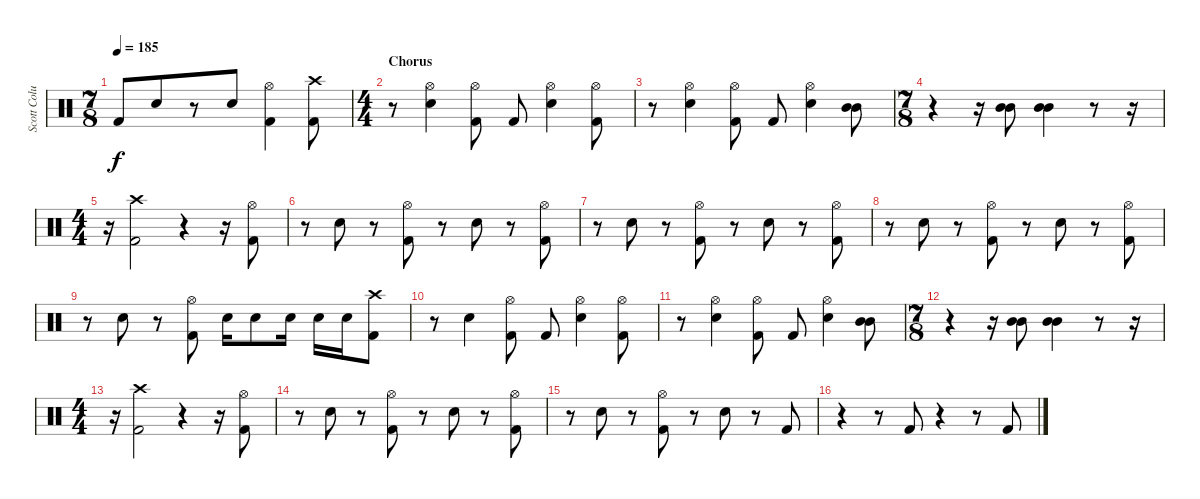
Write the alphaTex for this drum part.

\track ("Scott Columbus" "Scott Colu") {instrument percussion}
\staff {score}
\articulation defaults
\ts (7 8)
\tempo 185
\clef neutral
\ks c "Kick (hit) 2".8{dy f} "Snare (hit) 2".8
r.8 "Snare (hit) 2".8 ("Hi-Hat (open)" "Kick (hit) 2").4 ("Crash high (hit)" "Kick (hit) 2").8 |
\ts (4 4)
\section ("" "Chorus")
r.8 ("Hi-Hat (open)" "Snare (hit) 2").4 ("Hi-Hat (open)" "Kick (hit) 2").8 "Kick (hit) 2".8 ("Hi-Hat (open)" "Snare (hit) 2").4 ("Hi-Hat (open)" "Kick (hit) 2").8 |
r.8 ("Hi-Hat (open)" "Snare (hit) 2").4 ("Hi-Hat (open)" "Kick (hit) 2").8 "Kick (hit) 2".8 ("Hi-Hat (open)" "Snare (hit) 2").4 ("Mid Tom (hit)" "Mid Tom (hit)").8 |
\ts (7 8)
r.4 r.16 ("Mid Tom (hit)" "Mid Tom (hit)").8 ("Mid Tom (hit)" "Mid Tom (hit)").4 r.8 r.16 |
\ts (4 4)
r.16 ("Crash high (hit)" "Kick (hit) 2").2 r.4 r.16 ("Hi-Hat (open)" "Kick (hit) 2").8 |
r.8 "Snare (hit) 2".8 r.8 ("Hi-Hat (open)" "Kick (hit) 2").8 r.8 "Snare (hit) 2".8 r.8 ("Hi-Hat (open)" "Kick (hit) 2").8 |
r.8 "Snare (hit) 2".8 r.8 ("Hi-Hat (open)" "Kick (hit) 2").8 r.8 "Snare (hit) 2".8 r.8 ("Hi-Hat (open)" "Kick (hit) 2").8 |
r.8 "Snare (hit) 2".8 r.8 ("Hi-Hat (open)" "Kick (hit) 2").8 r.8 "Snare (hit) 2".8 r.8 ("Hi-Hat (open)" "Kick (hit) 2").8 |
r.8 "Snare (hit) 2".8 r.8 ("Hi-Hat (open)" "Kick (hit) 2").8 "Snare (hit) 2".16 "Snare (hit) 2".8 "Snare (hit) 2".16 "Snare (hit) 2".16 "Snare (hit) 2".16 ("Crash high (hit)" "Kick (hit) 2").8 |
r.8 "Snare (hit) 2".4 ("Hi-Hat (open)" "Kick (hit) 2").8 "Kick (hit) 2".8 ("Hi-Hat (open)" "Snare (hit) 2").4 ("Hi-Hat (open)" "Kick (hit) 2").8 |
r.8 ("Hi-Hat (open)" "Snare (hit) 2").4 ("Hi-Hat (open)" "Kick (hit) 2").8 "Kick (hit) 2".8 ("Hi-Hat (open)" "Snare (hit) 2").4 ("Mid Tom (hit)" "Mid Tom (hit)").8 |
\ts (7 8)
r.4 r.16 ("Mid Tom (hit)" "Mid Tom (hit)").8 ("Mid Tom (hit)" "Mid Tom (hit)").4 r.8 r.16 |
\ts (4 4)
r.16 ("Crash high (hit)" "Kick (hit) 2").2 r.4 r.16 ("Hi-Hat (open)" "Kick (hit) 2").8 |
r.8 "Snare (hit) 2".8 r.8 ("Hi-Hat (open)" "Kick (hit) 2").8 r.8 "Snare (hit) 2".8 r.8 ("Hi-Hat (open)" "Kick (hit) 2").8 |
r.8 "Snare (hit) 2".8 r.8 ("Hi-Hat (open)" "Kick (hit) 2").8 r.8 "Snare (hit) 2".8 r.8 "Kick (hit) 2".8 |
r.4 r.8 "Kick (hit) 2".8 r.4 r.8 "Kick (hit) 2".8
